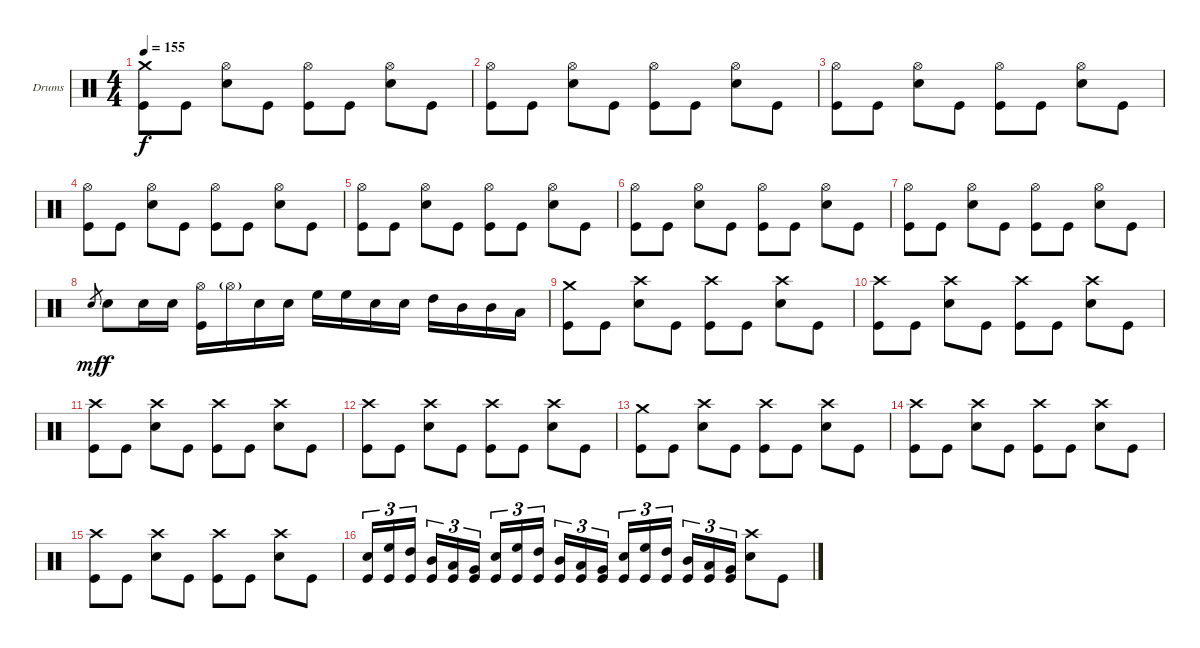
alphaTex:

\defaultSystemsLayout 4
\bracketExtendMode groupsimilarinstruments
\firstSystemTrackNameOrientation horizontal
\otherSystemsTrackNameOrientation horizontal
\track ("Drumkit" "Drums") {instrument percussion}
\staff {score}
\articulation defaults
\ts (4 4)
\tempo 155
\clef neutral
\scale
0.333333
\ks c
("Crash medium (hit)" "Kick (hit)").8{dy f} "Kick (hit)".8 ("Hi-Hat (open)" "Snare (hit) 2").8 "Kick (hit)".8 ("Hi-Hat (open)" "Kick (hit)").8 "Kick (hit)".8 ("Hi-Hat (open)" "Snare (hit) 2").8 "Kick (hit)".8 |
\scale
0.333333 ("Hi-Hat (open)" "Kick (hit)").8 "Kick (hit)".8 ("Hi-Hat (open)" "Snare (hit) 2").8 "Kick (hit)".8 ("Hi-Hat (open)" "Kick (hit)").8 "Kick (hit)".8 ("Hi-Hat (open)" "Snare (hit) 2").8 "Kick (hit)".8 |
\scale
0.333333 ("Hi-Hat (open)" "Kick (hit)").8 "Kick (hit)".8 ("Hi-Hat (open)" "Snare (hit) 2").8 "Kick (hit)".8 ("Hi-Hat (open)" "Kick (hit)").8 "Kick (hit)".8 ("Hi-Hat (open)" "Snare (hit) 2").8 "Kick (hit)".8 |
\scale
0.333333 ("Hi-Hat (open)" "Kick (hit)").8 "Kick (hit)".8 ("Hi-Hat (open)" "Snare (hit) 2").8 "Kick (hit)".8 ("Hi-Hat (open)" "Kick (hit)").8 "Kick (hit)".8 ("Hi-Hat (open)" "Snare (hit) 2").8 "Kick (hit)".8 |
\scale
0.333333 ("Hi-Hat (open)" "Kick (hit)").8 "Kick (hit)".8 ("Hi-Hat (open)" "Snare (hit) 2").8 "Kick (hit)".8 ("Hi-Hat (open)" "Kick (hit)").8 "Kick (hit)".8 ("Hi-Hat (open)" "Snare (hit) 2").8 "Kick (hit)".8 |
\scale
0.333333 ("Hi-Hat (open)" "Kick (hit)").8 "Kick (hit)".8 ("Hi-Hat (open)" "Snare (hit) 2").8 "Kick (hit)".8 ("Hi-Hat (open)" "Kick (hit)").8 "Kick (hit)".8 ("Hi-Hat (open)" "Snare (hit) 2").8 "Kick (hit)".8 |
\scale
0.333333 ("Hi-Hat (open)" "Kick (hit)").8 "Kick (hit)".8 ("Hi-Hat (open)" "Snare (hit) 2").8 "Kick (hit)".8 ("Hi-Hat (open)" "Kick (hit)").8 "Kick (hit)".8 ("Hi-Hat (open)" "Snare (hit) 2").8 "Kick (hit)".8 |
\scale
0.333333 "Snare (hit) 2".8{gr dy mf} "Snare (hit) 2".8{dy f} "Snare (hit) 2".16 "Snare (hit) 2".16 ("Hi-Hat (open)" "Kick (hit)").16 "Hi-Hat (open)"{g}.16 "Snare (hit) 2".16 "Snare (hit) 2".16 "High Floor Tom (hit)".16 "High Floor Tom (hit)".16 "Snare (hit) 2".16 "Snare (hit) 2".16 "High Tom (hit)".16 "Mid Tom (hit)".16 "Mid Tom (hit)".16 "Low Tom (hit)".16 |
\scale
0.333333 ("Crash medium (hit)" "Kick (hit)").8 "Kick (hit)".8 ("Crash high (hit)" "Snare (hit) 2").8 "Kick (hit)".8 ("Crash high (hit)" "Kick (hit)").8 "Kick (hit)".8 ("Crash high (hit)" "Snare (hit) 2").8 "Kick (hit)".8 |
\scale
0.333333 ("Crash high (hit)" "Kick (hit)").8 "Kick (hit)".8 ("Crash high (hit)" "Snare (hit) 2").8 "Kick (hit)".8 ("Crash high (hit)" "Kick (hit)").8 "Kick (hit)".8 ("Crash high (hit)" "Snare (hit) 2").8 "Kick (hit)".8 |
\scale
0.333333 ("Crash high (hit)" "Kick (hit)").8 "Kick (hit)".8 ("Crash high (hit)" "Snare (hit) 2").8 "Kick (hit)".8 ("Crash high (hit)" "Kick (hit)").8 "Kick (hit)".8 ("Crash high (hit)" "Snare (hit) 2").8 "Kick (hit)".8 |
\scale
0.333333 ("Crash high (hit)" "Kick (hit)").8 "Kick (hit)".8 ("Crash high (hit)" "Snare (hit) 2").8 "Kick (hit)".8 ("Crash high (hit)" "Kick (hit)").8 "Kick (hit)".8 ("Crash high (hit)" "Snare (hit) 2").8 "Kick (hit)".8 |
\scale
0.333333 ("Crash medium (hit)" "Kick (hit)").8 "Kick (hit)".8 ("Crash high (hit)" "Snare (hit) 2").8 "Kick (hit)".8 ("Crash high (hit)" "Kick (hit)").8 "Kick (hit)".8 ("Crash high (hit)" "Snare (hit) 2").8 "Kick (hit)".8 |
\scale
0.333333 ("Crash high (hit)" "Kick (hit)").8 "Kick (hit)".8 ("Crash high (hit)" "Snare (hit) 2").8 "Kick (hit)".8 ("Crash high (hit)" "Kick (hit)").8 "Kick (hit)".8 ("Crash high (hit)" "Snare (hit) 2").8 "Kick (hit)".8 |
\scale
0.333333 ("Crash high (hit)" "Kick (hit)").8 "Kick (hit)".8 ("Crash high (hit)" "Snare (hit) 2").8 "Kick (hit)".8 ("Crash high (hit)" "Kick (hit)").8 "Kick (hit)".8 ("Crash high (hit)" "Snare (hit) 2").8 "Kick (hit)".8 |
\scale
0.333333 ("Snare (hit) 2" "Kick (hit)").16{tu (3 2)} ("High Floor Tom (hit)" "Kick (hit)").16{tu (3 2)} ("High Tom (hit)" "Kick (hit)").16{tu (3 2)} ("Mid Tom (hit)" "Kick (hit)").16{tu (3 2)} ("Low Tom (hit)" "Kick (hit)").16{tu (3 2)} ("Very Low Tom (hit)" "Kick (hit)").16{tu (3 2)} ("Snare (hit) 2" "Kick (hit)").16{tu (3 2)} ("High Floor Tom (hit)" "Kick (hit)").16{tu (3 2)} ("High Tom (hit)" "Kick (hit)").16{tu (3 2)} ("Mid Tom (hit)" "Kick (hit)").16{tu (3 2)} ("Low Tom (hit)" "Kick (hit)").16{tu (3 2)} ("Very Low Tom (hit)" "Kick (hit)").16{tu (3 2)} ("Snare (hit) 2" "Kick (hit)").16{tu (3 2)} ("High Floor Tom (hit)" "Kick (hit)").16{tu (3 2)} ("High Tom (hit)" "Kick (hit)").16{tu (3 2)} ("Mid Tom (hit)" "Kick (hit)").16{tu (3 2)} ("Low Tom (hit)" "Kick (hit)").16{tu (3 2)} ("Very Low Tom (hit)" "Kick (hit)").16{tu (3 2)} ("Crash high (hit)" "Snare (hit) 2").8 "Kick (hit)".8
